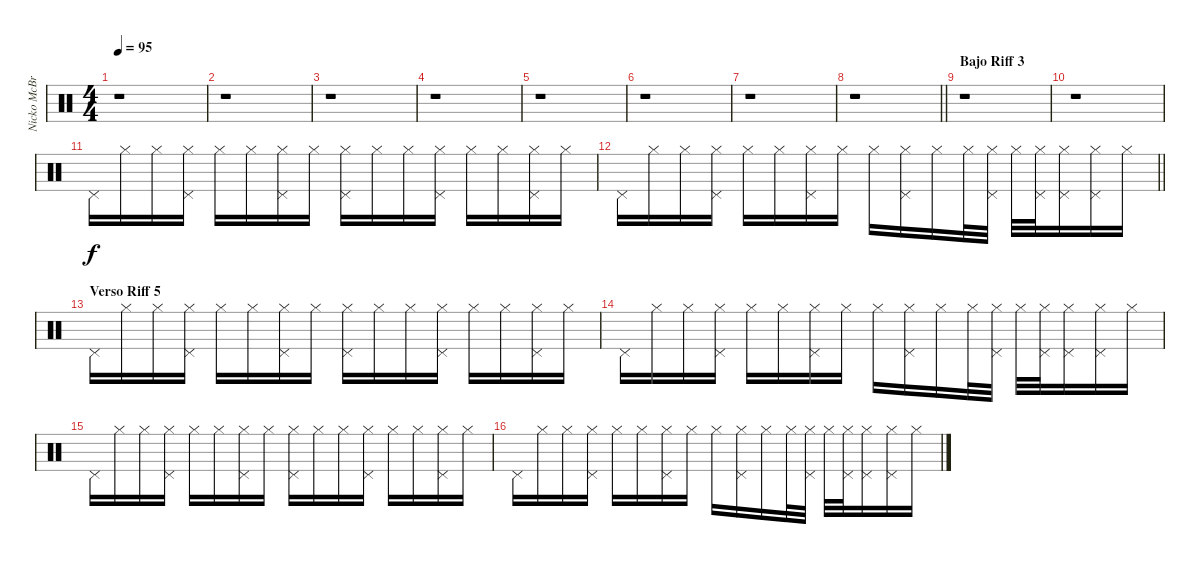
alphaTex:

\track ("Nicko McBrain" "Nicko McBr") {instrument percussion}
\staff {score}
\articulation defaults
\ts (4 4)
\tempo 95
\clef neutral
\ks c
r.1{dy f} |
r.1 |
r.1 |
r.1 |
r.1 |
r.1 |
r.1 |
\barLineRight lightlight
r.1 |
\section ("" "Bajo Riff 3")
r.1 |
r.1 |
"Pedal Hi-Hat (hit)".16 "Hi-Hat (closed)".16 "Hi-Hat (closed)".16 ("Hi-Hat (closed)" "Pedal Hi-Hat (hit)").16 "Hi-Hat (closed)".16 "Hi-Hat (closed)".16 ("Hi-Hat (closed)" "Pedal Hi-Hat (hit)").16 "Hi-Hat (closed)".16 ("Hi-Hat (closed)" "Pedal Hi-Hat (hit)").16 "Hi-Hat (closed)".16 "Hi-Hat (closed)".16 ("Hi-Hat (closed)" "Pedal Hi-Hat (hit)").16 "Hi-Hat (closed)".16 "Hi-Hat (closed)".16 ("Hi-Hat (closed)" "Pedal Hi-Hat (hit)").16 "Hi-Hat (closed)".16 |
\barLineRight lightlight "Pedal Hi-Hat (hit)".16 "Hi-Hat (closed)".16 "Hi-Hat (closed)".16
("Hi-Hat (closed)" "Pedal Hi-Hat (hit)").16 "Hi-Hat (closed)".16 "Hi-Hat (closed)".16 ("Hi-Hat (closed)" "Pedal Hi-Hat (hit)").16 "Hi-Hat (closed)".16 "Hi-Hat (closed)".16 ("Hi-Hat (closed)" "Pedal Hi-Hat (hit)").16 "Hi-Hat (closed)".16 "Hi-Hat (closed)".32 ("Hi-Hat (closed)" "Pedal Hi-Hat (hit)").32 "Hi-Hat (closed)".32 ("Hi-Hat (closed)" "Pedal Hi-Hat (hit)").32 ("Hi-Hat (closed)" "Pedal Hi-Hat (hit)").16 ("Hi-Hat (closed)" "Pedal Hi-Hat (hit)").16 "Hi-Hat (closed)".16 |
\section ("" "Verso Riff 5")
"Pedal Hi-Hat (hit)".16 "Hi-Hat (closed)".16 "Hi-Hat (closed)".16 ("Hi-Hat (closed)" "Pedal Hi-Hat (hit)").16 "Hi-Hat (closed)".16 "Hi-Hat (closed)".16 ("Hi-Hat (closed)" "Pedal Hi-Hat (hit)").16 "Hi-Hat (closed)".16 ("Hi-Hat (closed)" "Pedal Hi-Hat (hit)").16 "Hi-Hat (closed)".16 "Hi-Hat (closed)".16 ("Hi-Hat (closed)" "Pedal Hi-Hat (hit)").16 "Hi-Hat (closed)".16 "Hi-Hat (closed)".16 ("Hi-Hat (closed)" "Pedal Hi-Hat (hit)").16 "Hi-Hat (closed)".16 |
"Pedal Hi-Hat (hit)".16 "Hi-Hat (closed)".16 "Hi-Hat (closed)".16 ("Hi-Hat (closed)" "Pedal Hi-Hat (hit)").16 "Hi-Hat (closed)".16 "Hi-Hat (closed)".16 ("Hi-Hat (closed)" "Pedal Hi-Hat (hit)").16 "Hi-Hat (closed)".16 "Hi-Hat (closed)".16 ("Hi-Hat (closed)" "Pedal Hi-Hat (hit)").16 "Hi-Hat (closed)".16 "Hi-Hat (closed)".32 ("Hi-Hat (closed)" "Pedal Hi-Hat (hit)").32 "Hi-Hat (closed)".32 ("Hi-Hat (closed)" "Pedal Hi-Hat (hit)").32 ("Hi-Hat (closed)" "Pedal Hi-Hat (hit)").16 ("Hi-Hat (closed)" "Pedal Hi-Hat (hit)").16 "Hi-Hat (closed)".16 |
"Pedal Hi-Hat (hit)".16 "Hi-Hat (closed)".16 "Hi-Hat (closed)".16 ("Hi-Hat (closed)" "Pedal Hi-Hat (hit)").16 "Hi-Hat (closed)".16 "Hi-Hat (closed)".16 ("Hi-Hat (closed)" "Pedal Hi-Hat (hit)").16 "Hi-Hat (closed)".16 ("Hi-Hat (closed)" "Pedal Hi-Hat (hit)").16 "Hi-Hat (closed)".16 "Hi-Hat (closed)".16 ("Hi-Hat (closed)" "Pedal Hi-Hat (hit)").16 "Hi-Hat (closed)".16 "Hi-Hat (closed)".16 ("Hi-Hat (closed)" "Pedal Hi-Hat (hit)").16 "Hi-Hat (closed)".16 |
"Pedal Hi-Hat (hit)".16 "Hi-Hat (closed)".16 "Hi-Hat (closed)".16 ("Hi-Hat (closed)" "Pedal Hi-Hat (hit)").16 "Hi-Hat (closed)".16 "Hi-Hat (closed)".16 ("Hi-Hat (closed)" "Pedal Hi-Hat (hit)").16 "Hi-Hat (closed)".16 "Hi-Hat (closed)".16 ("Hi-Hat (closed)" "Pedal Hi-Hat (hit)").16 "Hi-Hat (closed)".16 "Hi-Hat (closed)".32 ("Hi-Hat (closed)" "Pedal Hi-Hat (hit)").32 "Hi-Hat (closed)".32 ("Hi-Hat (closed)" "Pedal Hi-Hat (hit)").32 ("Hi-Hat (closed)" "Pedal Hi-Hat (hit)").16 ("Hi-Hat (closed)" "Pedal Hi-Hat (hit)").16 "Hi-Hat (closed)".16
